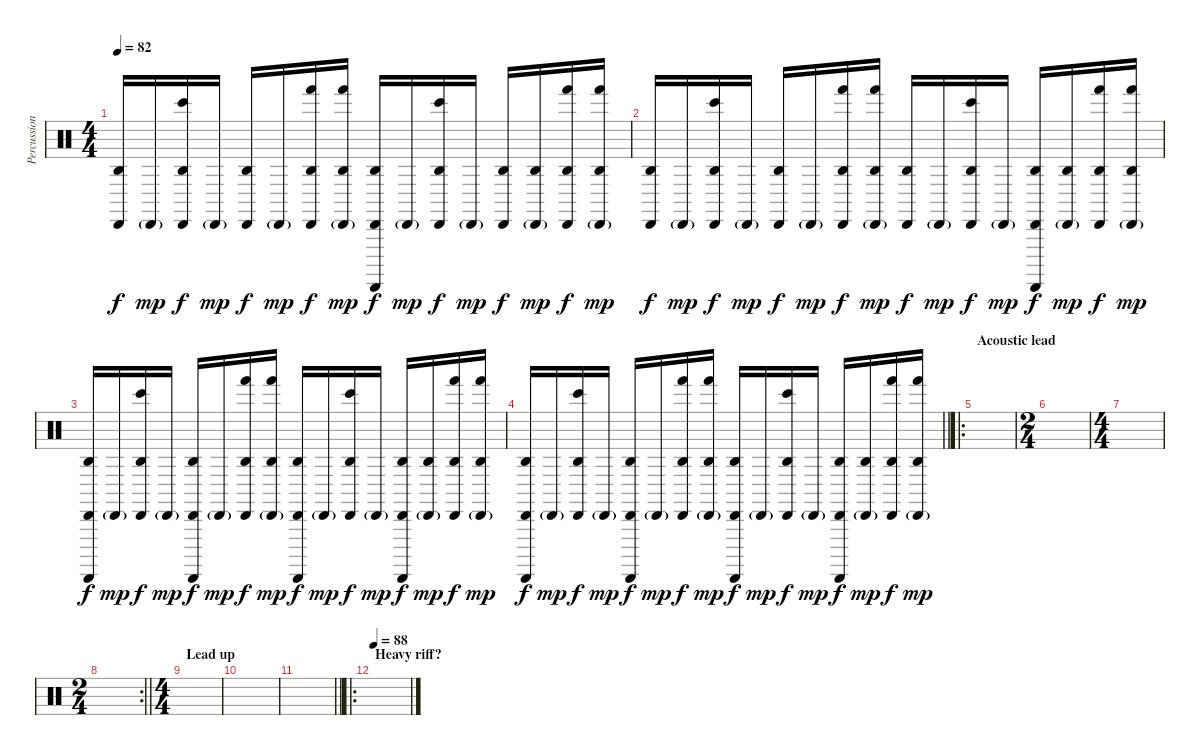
\track ("Percussion" "Percussion") {instrument percussion}
\staff {score}
\articulation defaults
\ts (4 4)
\tempo 82
\clef neutral
\ks c
("Cabasa (hit)" "Agogo high (hit)").16{dy f} "Cabasa (hit)"{g}.16{dy mp} ("Cabasa (hit)" "Agogo high (hit)" "Bongo High (hit)").16{dy f} "Cabasa (hit)"{g}.16{dy mp} ("Cabasa (hit)" "Agogo high (hit)").16{dy f} "Cabasa (hit)"{g}.16{dy mp} ("Cabasa (hit)" "Agogo high (hit)" "Hand (hit)").16{dy f} ("Cabasa (hit)"{g} "Agogo high (hit)" "Hand (hit)").16{dy mp} ("Cabasa (hit)" "Agogo high (hit)" "Guiro (scrap-return)").16{dy f} "Cabasa (hit)"{g}.16{dy mp} ("Cabasa (hit)" "Agogo high (hit)" "Bongo High (hit)").16{dy f} "Cabasa (hit)"{g}.16{dy mp} ("Cabasa (hit)" "Agogo high (hit)").16{dy f} ("Cabasa (hit)"{g} "Agogo high (hit)").16{dy mp} ("Cabasa (hit)" "Agogo high (hit)" "Hand (hit)").16{dy f} ("Cabasa (hit)"{g} "Agogo high (hit)" "Hand (hit)").16{dy mp} |
("Cabasa (hit)" "Agogo high (hit)").16{dy f} "Cabasa (hit)"{g}.16{dy mp} ("Cabasa (hit)" "Agogo high (hit)" "Bongo High (hit)").16{dy f} "Cabasa (hit)"{g}.16{dy mp} ("Cabasa (hit)" "Agogo high (hit)").16{dy f} "Cabasa (hit)"{g}.16{dy mp} ("Cabasa (hit)" "Agogo high (hit)" "Hand (hit)").16{dy f} ("Cabasa (hit)"{g} "Agogo high (hit)" "Hand (hit)").16{dy mp} ("Cabasa (hit)" "Agogo high (hit)").16{dy f} "Cabasa (hit)"{g}.16{dy mp} ("Cabasa (hit)" "Agogo high (hit)" "Bongo High (hit)").16{dy f} "Cabasa (hit)"{g}.16{dy mp} ("Cabasa (hit)" "Agogo high (hit)" "Guiro (scrap-return)").16{dy f} ("Cabasa (hit)"{g} "Agogo high (hit)").16{dy mp} ("Cabasa (hit)" "Agogo high (hit)" "Hand (hit)").16{dy f} ("Cabasa (hit)"{g} "Agogo high (hit)" "Hand (hit)").16{dy mp} |
("Cabasa (hit)" "Agogo high (hit)" "Guiro (scrap-return)").16{dy f} "Cabasa (hit)"{g}.16{dy mp} ("Cabasa (hit)" "Agogo high (hit)" "Bongo High (hit)").16{dy f} "Cabasa (hit)"{g}.16{dy mp} ("Cabasa (hit)" "Agogo high (hit)" "Guiro (scrap-return)").16{dy f} "Cabasa (hit)"{g}.16{dy mp} ("Cabasa (hit)" "Agogo high (hit)" "Hand (hit)").16{dy f} ("Cabasa (hit)"{g} "Agogo high (hit)" "Hand (hit)").16{dy mp} ("Cabasa (hit)" "Agogo high (hit)" "Guiro (scrap-return)").16{dy f} "Cabasa (hit)"{g}.16{dy mp} ("Cabasa (hit)" "Agogo high (hit)" "Bongo High (hit)").16{dy f} "Cabasa (hit)"{g}.16{dy mp} ("Cabasa (hit)" "Agogo high (hit)" "Guiro (scrap-return)").16{dy f} ("Cabasa (hit)"{g} "Agogo high (hit)").16{dy mp} ("Cabasa (hit)" "Agogo high (hit)" "Hand (hit)").16{dy f} ("Cabasa (hit)"{g} "Agogo high (hit)" "Hand (hit)").16{dy mp} |
\barLineRight lightlight
("Cabasa (hit)" "Agogo high (hit)" "Guiro (scrap-return)").16{dy f} "Cabasa (hit)"{g}.16{dy mp} ("Cabasa (hit)" "Agogo high (hit)" "Bongo High (hit)").16{dy f} "Cabasa (hit)"{g}.16{dy mp} ("Cabasa (hit)" "Agogo high (hit)" "Guiro (scrap-return)").16{dy f} "Cabasa (hit)"{g}.16{dy mp} ("Cabasa (hit)" "Agogo high (hit)" "Hand (hit)").16{dy f} ("Cabasa (hit)"{g} "Agogo high (hit)" "Hand (hit)").16{dy mp} ("Cabasa (hit)" "Agogo high (hit)" "Guiro (scrap-return)").16{dy f} "Cabasa (hit)"{g}.16{dy mp} ("Cabasa (hit)" "Agogo high (hit)" "Bongo High (hit)").16{dy f} "Cabasa (hit)"{g}.16{dy mp} ("Cabasa (hit)" "Agogo high (hit)" "Guiro (scrap-return)").16{dy f} ("Cabasa (hit)"{g} "Agogo high (hit)").16{dy mp} ("Cabasa (hit)" "Agogo high (hit)" "Hand (hit)").16{dy f} ("Cabasa (hit)"{g} "Agogo high (hit)" "Hand (hit)").16{dy mp} |
\ro
\section ("" "Acoustic lead")
|
\ts (2 4)
|
\ts (4 4)
|
\rc 2
\ts (2 4)
\barLineRight lightlight
|
\ts (4 4)
\section ("" "Lead up ")
|
|
\barLineRight lightlight
|
\ro
\section ("" "Heavy riff?")
\tempo 88
